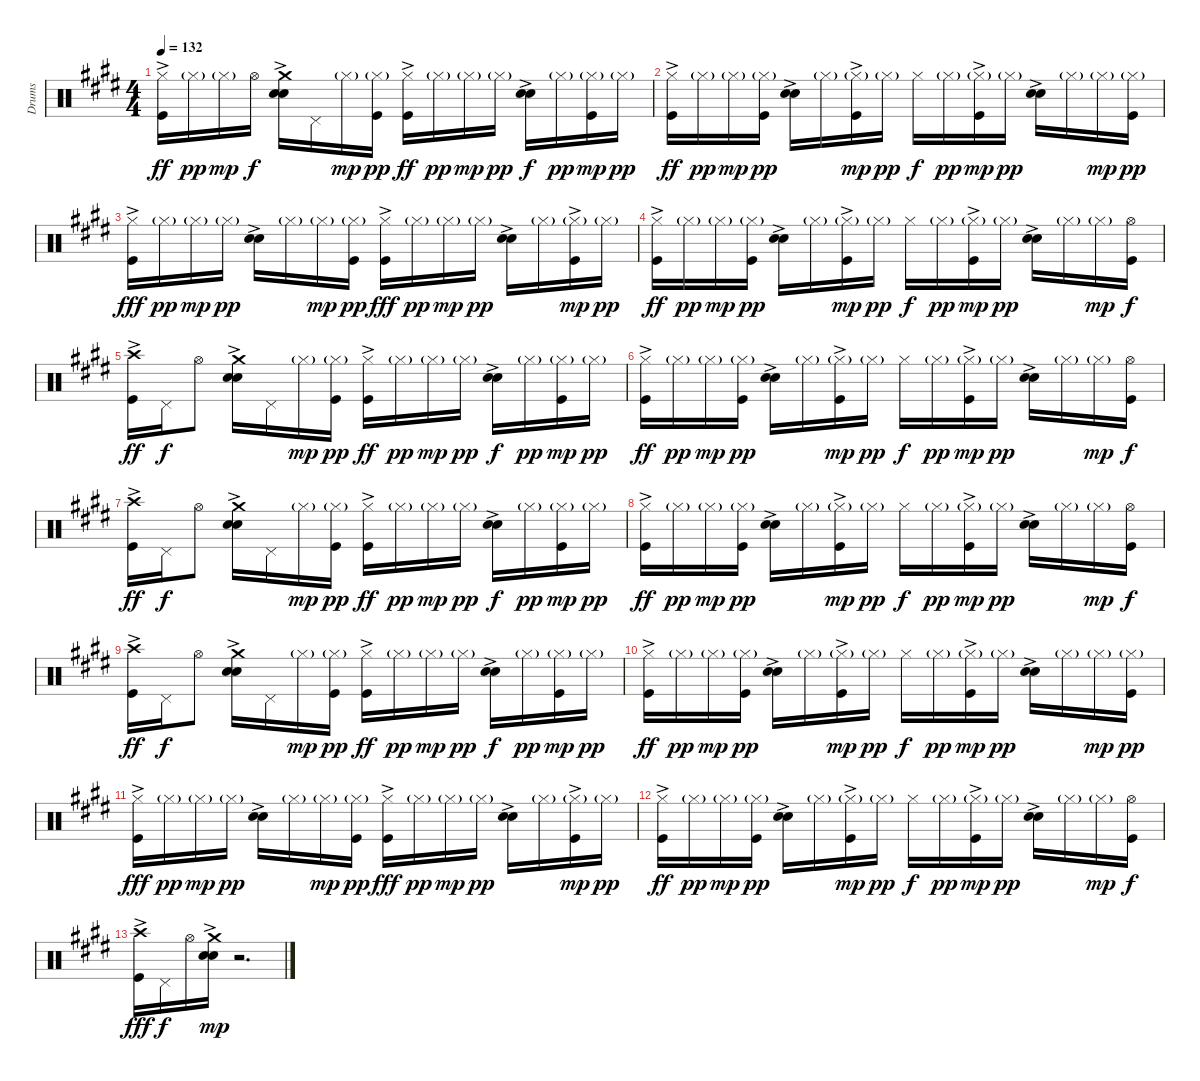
\track ("Drums" "Drums") {instrument percussion}
\staff {score}
\articulation defaults
\ts (4 4)
\tempo 132
\clef neutral
\ks e
("Kick (hit)"{ac} "Hi-Hat (closed)").16{dy ff} "Hi-Hat (closed)"{g}.16{dy pp} "Hi-Hat (closed)"{g}.16{dy mp} "Hi-Hat (open)".16{dy f} ("Snare (hit) 2"{ac} "Electric Snare (hit)" "Crash medium (hit)").16 "Pedal Hi-Hat (hit)".16 "Hi-Hat (closed)"{g}.16{dy mp} ("Kick (hit)" "Hi-Hat (closed)"{g}).16{dy pp} ("Kick (hit)"{ac} "Hi-Hat (closed)").16{dy ff} "Hi-Hat (closed)"{g}.16{dy pp} "Hi-Hat (closed)"{g}.16{dy mp} "Hi-Hat (closed)"{g}.16{dy pp} ("Snare (hit) 2"{ac} "Electric Snare (hit)").16{dy f} "Hi-Hat (closed)"{g}.16{dy pp} ("Kick (hit)" "Hi-Hat (closed)"{g}).16{dy mp} "Hi-Hat (closed)"{g}.16{dy pp} |
("Kick (hit)"{ac} "Hi-Hat (closed)").16{dy ff} "Hi-Hat (closed)"{g}.16{dy pp} "Hi-Hat (closed)"{g}.16{dy mp} ("Kick (hit)" "Hi-Hat (closed)"{g}).16{dy pp} ("Snare (hit) 2"{ac} "Electric Snare (hit)").16 "Hi-Hat (closed)"{g}.16 ("Kick (hit)"{ac} "Hi-Hat (closed)"{g}).16{dy mp} "Hi-Hat (closed)"{g}.16{dy pp} "Hi-Hat (closed)".16{dy f} "Hi-Hat (closed)"{g}.16{dy pp} ("Kick (hit)"{ac} "Hi-Hat (closed)"{g}).16{dy mp} "Hi-Hat (closed)"{g}.16{dy pp} ("Snare (hit) 2"{ac} "Electric Snare (hit)").16 "Hi-Hat (closed)"{g}.16 "Hi-Hat (closed)"{g}.16{dy mp} ("Kick (hit)" "Hi-Hat (closed)"{g}).16{dy pp} |
("Kick (hit)"{ac} "Hi-Hat (closed)").16{dy fff} "Hi-Hat (closed)"{g}.16{dy pp} "Hi-Hat (closed)"{g}.16{dy mp} "Hi-Hat (closed)"{g}.16{dy pp} ("Snare (hit) 2"{ac} "Electric Snare (hit)").16 "Hi-Hat (closed)"{g}.16 "Hi-Hat (closed)"{g}.16{dy mp} ("Kick (hit)" "Hi-Hat (closed)"{g}).16{dy pp} ("Kick (hit)"{ac} "Hi-Hat (closed)").16{dy fff} "Hi-Hat (closed)"{g}.16{dy pp} "Hi-Hat (closed)"{g}.16{dy mp} "Hi-Hat (closed)"{g}.16{dy pp} ("Snare (hit) 2"{ac} "Electric Snare (hit)").16 "Hi-Hat (closed)"{g}.16 ("Kick (hit)"{ac} "Hi-Hat (closed)"{g}).16{dy mp} "Hi-Hat (closed)"{g}.16{dy pp} |
("Kick (hit)"{ac} "Hi-Hat (closed)").16{dy ff} "Hi-Hat (closed)"{g}.16{dy pp} "Hi-Hat (closed)"{g}.16{dy mp} ("Kick (hit)" "Hi-Hat (closed)"{g}).16{dy pp} ("Snare (hit) 2"{ac} "Electric Snare (hit)").16 "Hi-Hat (closed)"{g}.16 ("Kick (hit)"{ac} "Hi-Hat (closed)"{g}).16{dy mp} "Hi-Hat (closed)"{g}.16{dy pp} "Hi-Hat (closed)".16{dy f} "Hi-Hat (closed)"{g}.16{dy pp} ("Kick (hit)"{ac} "Hi-Hat (closed)"{g}).16{dy mp} "Hi-Hat (closed)"{g}.16{dy pp} ("Snare (hit) 2"{ac} "Electric Snare (hit)").16 "Hi-Hat (closed)"{g}.16 "Hi-Hat (closed)"{g}.16{dy mp} ("Kick (hit)" "Hi-Hat (open)").16{dy f} |
("Kick (hit)"{ac} "Crash high (hit)").16{dy ff} "Pedal Hi-Hat (hit)".16{dy f} "Hi-Hat (open)".8 ("Snare (hit) 2"{ac} "Electric Snare (hit)" "Crash medium (hit)").16 "Pedal Hi-Hat (hit)".16 "Hi-Hat (closed)"{g}.16{dy mp} ("Kick (hit)" "Hi-Hat (closed)"{g}).16{dy pp} ("Kick (hit)"{ac} "Hi-Hat (closed)").16{dy ff} "Hi-Hat (closed)"{g}.16{dy pp} "Hi-Hat (closed)"{g}.16{dy mp} "Hi-Hat (closed)"{g}.16{dy pp} ("Snare (hit) 2"{ac} "Electric Snare (hit)").16{dy f} "Hi-Hat (closed)"{g}.16{dy pp} ("Kick (hit)" "Hi-Hat (closed)"{g}).16{dy mp} "Hi-Hat (closed)"{g}.16{dy pp} |
("Kick (hit)"{ac} "Hi-Hat (closed)").16{dy ff} "Hi-Hat (closed)"{g}.16{dy pp} "Hi-Hat (closed)"{g}.16{dy mp} ("Kick (hit)" "Hi-Hat (closed)"{g}).16{dy pp} ("Snare (hit) 2"{ac} "Electric Snare (hit)").16 "Hi-Hat (closed)"{g}.16 ("Kick (hit)"{ac} "Hi-Hat (closed)"{g}).16{dy mp} "Hi-Hat (closed)"{g}.16{dy pp} "Hi-Hat (closed)".16{dy f} "Hi-Hat (closed)"{g}.16{dy pp} ("Kick (hit)"{ac} "Hi-Hat (closed)"{g}).16{dy mp} "Hi-Hat (closed)"{g}.16{dy pp} ("Snare (hit) 2"{ac} "Electric Snare (hit)").16 "Hi-Hat (closed)"{g}.16 "Hi-Hat (closed)"{g}.16{dy mp} ("Kick (hit)" "Hi-Hat (open)").16{dy f} |
("Kick (hit)"{ac} "Crash high (hit)").16{dy ff} "Pedal Hi-Hat (hit)".16{dy f} "Hi-Hat (open)".8 ("Snare (hit) 2"{ac} "Electric Snare (hit)" "Crash medium (hit)").16 "Pedal Hi-Hat (hit)".16 "Hi-Hat (closed)"{g}.16{dy mp} ("Kick (hit)" "Hi-Hat (closed)"{g}).16{dy pp} ("Kick (hit)"{ac} "Hi-Hat (closed)").16{dy ff} "Hi-Hat (closed)"{g}.16{dy pp} "Hi-Hat (closed)"{g}.16{dy mp} "Hi-Hat (closed)"{g}.16{dy pp} ("Snare (hit) 2"{ac} "Electric Snare (hit)").16{dy f} "Hi-Hat (closed)"{g}.16{dy pp} ("Kick (hit)" "Hi-Hat (closed)"{g}).16{dy mp} "Hi-Hat (closed)"{g}.16{dy pp} |
("Kick (hit)"{ac} "Hi-Hat (closed)").16{dy ff} "Hi-Hat (closed)"{g}.16{dy pp} "Hi-Hat (closed)"{g}.16{dy mp} ("Kick (hit)" "Hi-Hat (closed)"{g}).16{dy pp} ("Snare (hit) 2"{ac} "Electric Snare (hit)").16 "Hi-Hat (closed)"{g}.16 ("Kick (hit)"{ac} "Hi-Hat (closed)"{g}).16{dy mp} "Hi-Hat (closed)"{g}.16{dy pp} "Hi-Hat (closed)".16{dy f} "Hi-Hat (closed)"{g}.16{dy pp} ("Kick (hit)"{ac} "Hi-Hat (closed)"{g}).16{dy mp} "Hi-Hat (closed)"{g}.16{dy pp} ("Snare (hit) 2"{ac} "Electric Snare (hit)").16 "Hi-Hat (closed)"{g}.16 "Hi-Hat (closed)"{g}.16{dy mp} ("Kick (hit)" "Hi-Hat (open)").16{dy f} |
("Kick (hit)"{ac} "Crash high (hit)").16{dy ff} "Pedal Hi-Hat (hit)".16{dy f} "Hi-Hat (open)".8 ("Snare (hit) 2"{ac} "Electric Snare (hit)" "Crash medium (hit)").16 "Pedal Hi-Hat (hit)".16 "Hi-Hat (closed)"{g}.16{dy mp} ("Kick (hit)" "Hi-Hat (closed)"{g}).16{dy pp} ("Kick (hit)"{ac} "Hi-Hat (closed)").16{dy ff} "Hi-Hat (closed)"{g}.16{dy pp} "Hi-Hat (closed)"{g}.16{dy mp} "Hi-Hat (closed)"{g}.16{dy pp} ("Snare (hit) 2"{ac} "Electric Snare (hit)").16{dy f} "Hi-Hat (closed)"{g}.16{dy pp} ("Kick (hit)" "Hi-Hat (closed)"{g}).16{dy mp} "Hi-Hat (closed)"{g}.16{dy pp} |
("Kick (hit)"{ac} "Hi-Hat (closed)").16{dy ff} "Hi-Hat (closed)"{g}.16{dy pp} "Hi-Hat (closed)"{g}.16{dy mp} ("Kick (hit)" "Hi-Hat (closed)"{g}).16{dy pp} ("Snare (hit) 2"{ac} "Electric Snare (hit)").16 "Hi-Hat (closed)"{g}.16 ("Kick (hit)"{ac} "Hi-Hat (closed)"{g}).16{dy mp} "Hi-Hat (closed)"{g}.16{dy pp} "Hi-Hat (closed)".16{dy f} "Hi-Hat (closed)"{g}.16{dy pp} ("Kick (hit)"{ac} "Hi-Hat (closed)"{g}).16{dy mp} "Hi-Hat (closed)"{g}.16{dy pp} ("Snare (hit) 2"{ac} "Electric Snare (hit)").16 "Hi-Hat (closed)"{g}.16 "Hi-Hat (closed)"{g}.16{dy mp} ("Kick (hit)" "Hi-Hat (closed)"{g}).16{dy pp} |
("Kick (hit)"{ac} "Hi-Hat (closed)").16{dy fff} "Hi-Hat (closed)"{g}.16{dy pp} "Hi-Hat (closed)"{g}.16{dy mp} "Hi-Hat (closed)"{g}.16{dy pp} ("Snare (hit) 2"{ac} "Electric Snare (hit)").16 "Hi-Hat (closed)"{g}.16 "Hi-Hat (closed)"{g}.16{dy mp} ("Kick (hit)" "Hi-Hat (closed)"{g}).16{dy pp} ("Kick (hit)"{ac} "Hi-Hat (closed)").16{dy fff} "Hi-Hat (closed)"{g}.16{dy pp} "Hi-Hat (closed)"{g}.16{dy mp} "Hi-Hat (closed)"{g}.16{dy pp} ("Snare (hit) 2"{ac} "Electric Snare (hit)").16 "Hi-Hat (closed)"{g}.16 ("Kick (hit)"{ac} "Hi-Hat (closed)"{g}).16{dy mp} "Hi-Hat (closed)"{g}.16{dy pp} |
("Kick (hit)"{ac} "Hi-Hat (closed)").16{dy ff} "Hi-Hat (closed)"{g}.16{dy pp} "Hi-Hat (closed)"{g}.16{dy mp} ("Kick (hit)" "Hi-Hat (closed)"{g}).16{dy pp} ("Snare (hit) 2"{ac} "Electric Snare (hit)").16 "Hi-Hat (closed)"{g}.16 ("Kick (hit)"{ac} "Hi-Hat (closed)"{g}).16{dy mp} "Hi-Hat (closed)"{g}.16{dy pp} "Hi-Hat (closed)".16{dy f} "Hi-Hat (closed)"{g}.16{dy pp} ("Kick (hit)"{ac} "Hi-Hat (closed)"{g}).16{dy mp} "Hi-Hat (closed)"{g}.16{dy pp} ("Snare (hit) 2"{ac} "Electric Snare (hit)").16 "Hi-Hat (closed)"{g}.16 "Hi-Hat (closed)"{g}.16{dy mp} ("Kick (hit)" "Hi-Hat (open)").16{dy f} |
("Kick (hit)"{ac} "Crash high (hit)").16{dy fff} "Pedal Hi-Hat (hit)".16{dy f} "Hi-Hat (open)".16 ("Snare (hit) 2"{ac} "Electric Snare (hit)" "Crash medium (hit)").16{dy mp} r.2{d}
